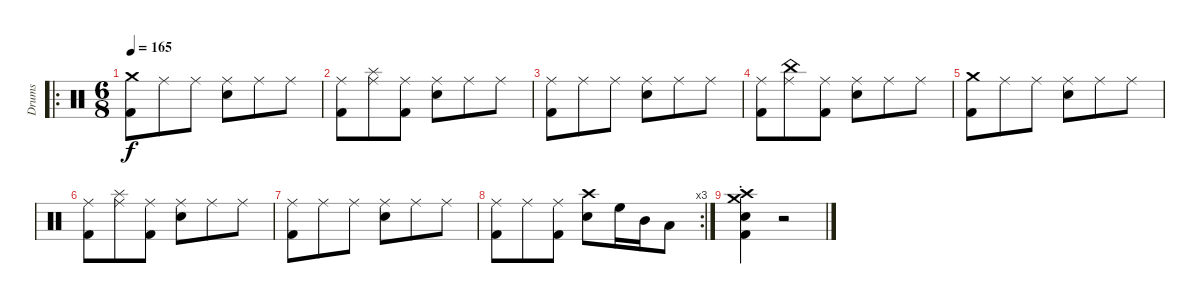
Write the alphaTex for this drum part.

\track ("Drums" "Drums") {instrument percussion}
\staff {score}
\articulation defaults
\ro
\ts (6 8)
\tempo 165
\clef neutral
\ks c
("Crash medium (hit)" "Kick (hit) 2").8{dy f} "Ride (middle)".8 "Ride (middle)".8 ("Ride (middle)" "Snare (hit) 2").8 "Ride (middle)".8 "Ride (middle)".8 |
("Ride (middle)" "Kick (hit) 2").8 ("Splash (hit)" "Ride (middle)").8 ("Ride (middle)" "Kick (hit) 2").8 ("Ride (middle)" "Snare (hit) 2").8 "Ride (middle)".8 "Ride (middle)".8 |
("Ride (middle)" "Kick (hit) 2").8 "Ride (middle)".8 "Ride (middle)".8 ("Ride (middle)" "Snare (hit) 2").8 "Ride (middle)".8 "Ride (middle)".8 |
("Ride (middle)" "Kick (hit) 2").8 ("China (hit)" "Ride (middle)").8 ("Ride (middle)" "Kick (hit) 2").8 ("Ride (middle)" "Snare (hit) 2").8 "Ride (middle)".8 "Ride (middle)".8 |
("Crash medium (hit)" "Kick (hit) 2").8 "Ride (middle)".8 "Ride (middle)".8 ("Ride (middle)" "Snare (hit) 2").8 "Ride (middle)".8 "Ride (middle)".8 |
("Ride (middle)" "Kick (hit) 2").8 ("Splash (hit)" "Ride (middle)").8 ("Ride (middle)" "Kick (hit) 2").8 ("Ride (middle)" "Snare (hit) 2").8 "Ride (middle)".8 "Ride (middle)".8 |
("Ride (middle)" "Kick (hit) 2").8 "Ride (middle)".8 "Ride (middle)".8 ("Ride (middle)" "Snare (hit) 2").8 "Ride (middle)".8 "Ride (middle)".8 |
\rc 3
("Ride (middle)" "Kick (hit) 2").8 "Ride (middle)".8 ("Ride (middle)" "Kick (hit) 2").8 ("Crash high (hit)" "Snare (hit) 2").8 "High Floor Tom (hit)".16 "Mid Tom (hit)".16 "Low Tom (hit)".8 |
("Crash medium (hit)"{st} "Crash high (hit)"{st} "Snare (hit) 2"{st} "Kick (hit) 2"{st}).4 r.2
